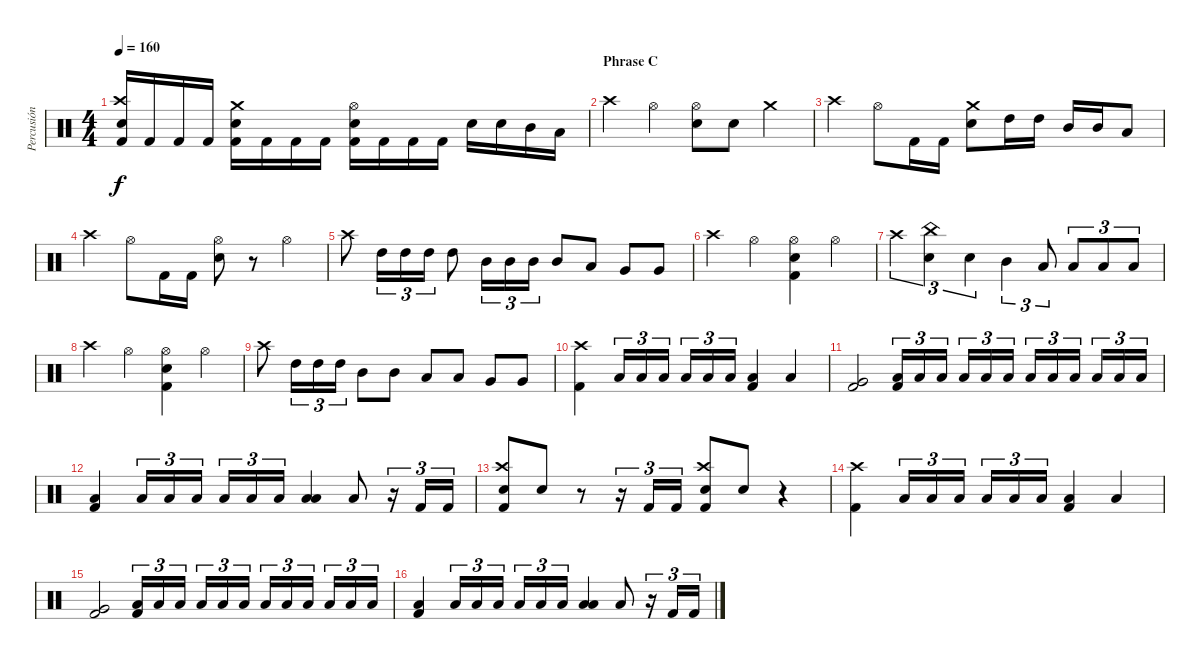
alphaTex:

\track ("Percusión" "Percusión") {instrument percussion}
\staff {score}
\articulation defaults
\ts (4 4)
\tempo 160
\clef neutral
\ks c
("Electric Snare (hit)" "Crash high (hit)" "Kick (hit) 2").16{dy f} "Kick (hit) 2".16 "Kick (hit) 2".16 "Kick (hit) 2".16 ("Electric Snare (hit)" "Crash medium (hit)" "Kick (hit) 2").16 "Kick (hit) 2".16 "Kick (hit) 2".16 "Kick (hit) 2".16 ("Electric Snare (hit)" "Hi-Hat (open)" "Kick (hit) 2").16 "Kick (hit) 2".16 "Kick (hit) 2".16 "Kick (hit) 2".16 "Electric Snare (hit)".16 "Electric Snare (hit)".16 "Mid Tom (hit)".16 "Low Tom (hit)".16 |
\section ("" "Phrase C")
"Crash high (hit)".4 "Hi-Hat (open)".4 ("Hi-Hat (open)" "Electric Snare (hit)").8 "Electric Snare (hit)".8 "Crash medium (hit)".4 |
"Crash high (hit)".4 "Hi-Hat (open)".8 "Kick (hit) 2".16 "Kick (hit) 2".16 ("Crash medium (hit)" "Electric Snare (hit)").8 "High Tom (hit)".16 "High Tom (hit)".16 "Mid Tom (hit)".16 "Mid Tom (hit)".16 "Low Tom (hit)".8 |
"Crash high (hit)".4 "Hi-Hat (open)".8 "Kick (hit) 2".16 "Kick (hit) 2".16 ("Hi-Hat (open)" "Electric Snare (hit)").8 r.8 "Hi-Hat (open)".4 |
"Crash high (hit)".8 "High Tom (hit)".16{tu (3 2)} "High Tom (hit)".16{tu (3 2)} "High Tom (hit)".16{tu (3 2)} "High Tom (hit)".8 "Mid Tom (hit)".16{tu (3 2)} "Mid Tom (hit)".16{tu (3 2)} "Mid Tom (hit)".16{tu (3 2)} "Mid Tom (hit)".8 "Low Tom (hit)".8 "Very Low Tom (hit)".8 "Very Low Tom (hit)".8 |
"Crash high (hit)".4 "Hi-Hat (open)".4 ("Hi-Hat (open)" "Electric Snare (hit)" "Kick (hit) 2").4 "Hi-Hat (open)".4 |
"Crash high (hit)".4{tu (3 2)} ("China (hit)" "Electric Snare (hit)").4{tu (3 2)} "Electric Snare (hit)".4{tu (3 2)} "Mid Tom (hit)".4{tu (3 2)} "Low Tom (hit)".8{tu (3 2)} "Low Tom (hit)".8{tu (3 2)} "Low Tom (hit)".8{tu (3 2)} "Low Tom (hit)".8{tu (3 2)} |
"Crash high (hit)".4 "Hi-Hat (open)".4 ("Hi-Hat (open)" "Electric Snare (hit)" "Kick (hit) 2").4 "Hi-Hat (open)".4 |
"Crash high (hit)".8 "High Tom (hit)".16{tu (3 2)} "High Tom (hit)".16{tu (3 2)} "High Tom (hit)".16{tu (3 2)} "Mid Tom (hit)".8 "Mid Tom (hit)".8 "Low Tom (hit)".8 "Low Tom (hit)".8 "Very Low Tom (hit)".8 "Very Low Tom (hit)".8 |
("Crash high (hit)" "Kick (hit) 2").4 "Low Tom (hit)".16{tu (3 2)} "Low Tom (hit)".16{tu (3 2)} "Low Tom (hit)".16{tu (3 2)} "Low Tom (hit)".16{tu (3 2)} "Low Tom (hit)".16{tu (3 2)} "Low Tom (hit)".16{tu (3 2)} ("Low Tom (hit)" "Kick (hit) 2").4 "Low Tom (hit)".4 |
("Very Low Tom (hit)" "Kick (hit) 2").2 ("Low Tom (hit)" "Kick (hit) 2").16{tu (3 2)} "Low Tom (hit)".16{tu (3 2)} "Low Tom (hit)".16{tu (3 2)} "Low Tom (hit)".16{tu (3 2)} "Low Tom (hit)".16{tu (3 2)} "Low Tom (hit)".16{tu (3 2)} "Low Tom (hit)".16{tu (3 2)} "Low Tom (hit)".16{tu (3 2)} "Low Tom (hit)".16{tu (3 2)} "Low Tom (hit)".16{tu (3 2)} "Low Tom (hit)".16{tu (3 2)} "Low Tom (hit)".16{tu (3 2)} |
("Low Tom (hit)" "Kick (hit) 2").4 "Low Tom (hit)".16{tu (3 2)} "Low Tom (hit)".16{tu (3 2)} "Low Tom (hit)".16{tu (3 2)} "Low Tom (hit)".16{tu (3 2)} "Low Tom (hit)".16{tu (3 2)} "Low Tom (hit)".16{tu (3 2)} ("Low Tom (hit)" "Low Tom (hit)").4 "Low Tom (hit)".8 r.16{tu (3 2)} "Kick (hit) 2".16{tu (3 2)} "Kick (hit) 2".16{tu (3 2)} |
("Crash high (hit)" "Electric Snare (hit)" "Kick (hit) 2").8 "Electric Snare (hit)".8 r.8 r.16{tu (3 2)} "Kick (hit) 2".16{tu (3 2)} "Kick (hit) 2".16{tu (3 2)} ("Crash high (hit)" "Electric Snare (hit)" "Kick (hit) 2").8 "Electric Snare (hit)".8 r.4 |
("Crash high (hit)" "Kick (hit) 2").4 "Low Tom (hit)".16{tu (3 2)} "Low Tom (hit)".16{tu (3 2)} "Low Tom (hit)".16{tu (3 2)} "Low Tom (hit)".16{tu (3 2)} "Low Tom (hit)".16{tu (3 2)} "Low Tom (hit)".16{tu (3 2)} ("Low Tom (hit)" "Kick (hit) 2").4 "Low Tom (hit)".4 |
("Very Low Tom (hit)" "Kick (hit) 2").2 ("Low Tom (hit)" "Kick (hit) 2").16{tu (3 2)} "Low Tom (hit)".16{tu (3 2)} "Low Tom (hit)".16{tu (3 2)} "Low Tom (hit)".16{tu (3 2)} "Low Tom (hit)".16{tu (3 2)} "Low Tom (hit)".16{tu (3 2)} "Low Tom (hit)".16{tu (3 2)} "Low Tom (hit)".16{tu (3 2)} "Low Tom (hit)".16{tu (3 2)} "Low Tom (hit)".16{tu (3 2)} "Low Tom (hit)".16{tu (3 2)} "Low Tom (hit)".16{tu (3 2)} |
("Low Tom (hit)" "Kick (hit) 2").4 "Low Tom (hit)".16{tu (3 2)} "Low Tom (hit)".16{tu (3 2)} "Low Tom (hit)".16{tu (3 2)} "Low Tom (hit)".16{tu (3 2)} "Low Tom (hit)".16{tu (3 2)} "Low Tom (hit)".16{tu (3 2)} ("Low Tom (hit)" "Low Tom (hit)").4 "Low Tom (hit)".8 r.16{tu (3 2)} "Kick (hit) 2".16{tu (3 2)} "Kick (hit) 2".16{tu (3 2)}
